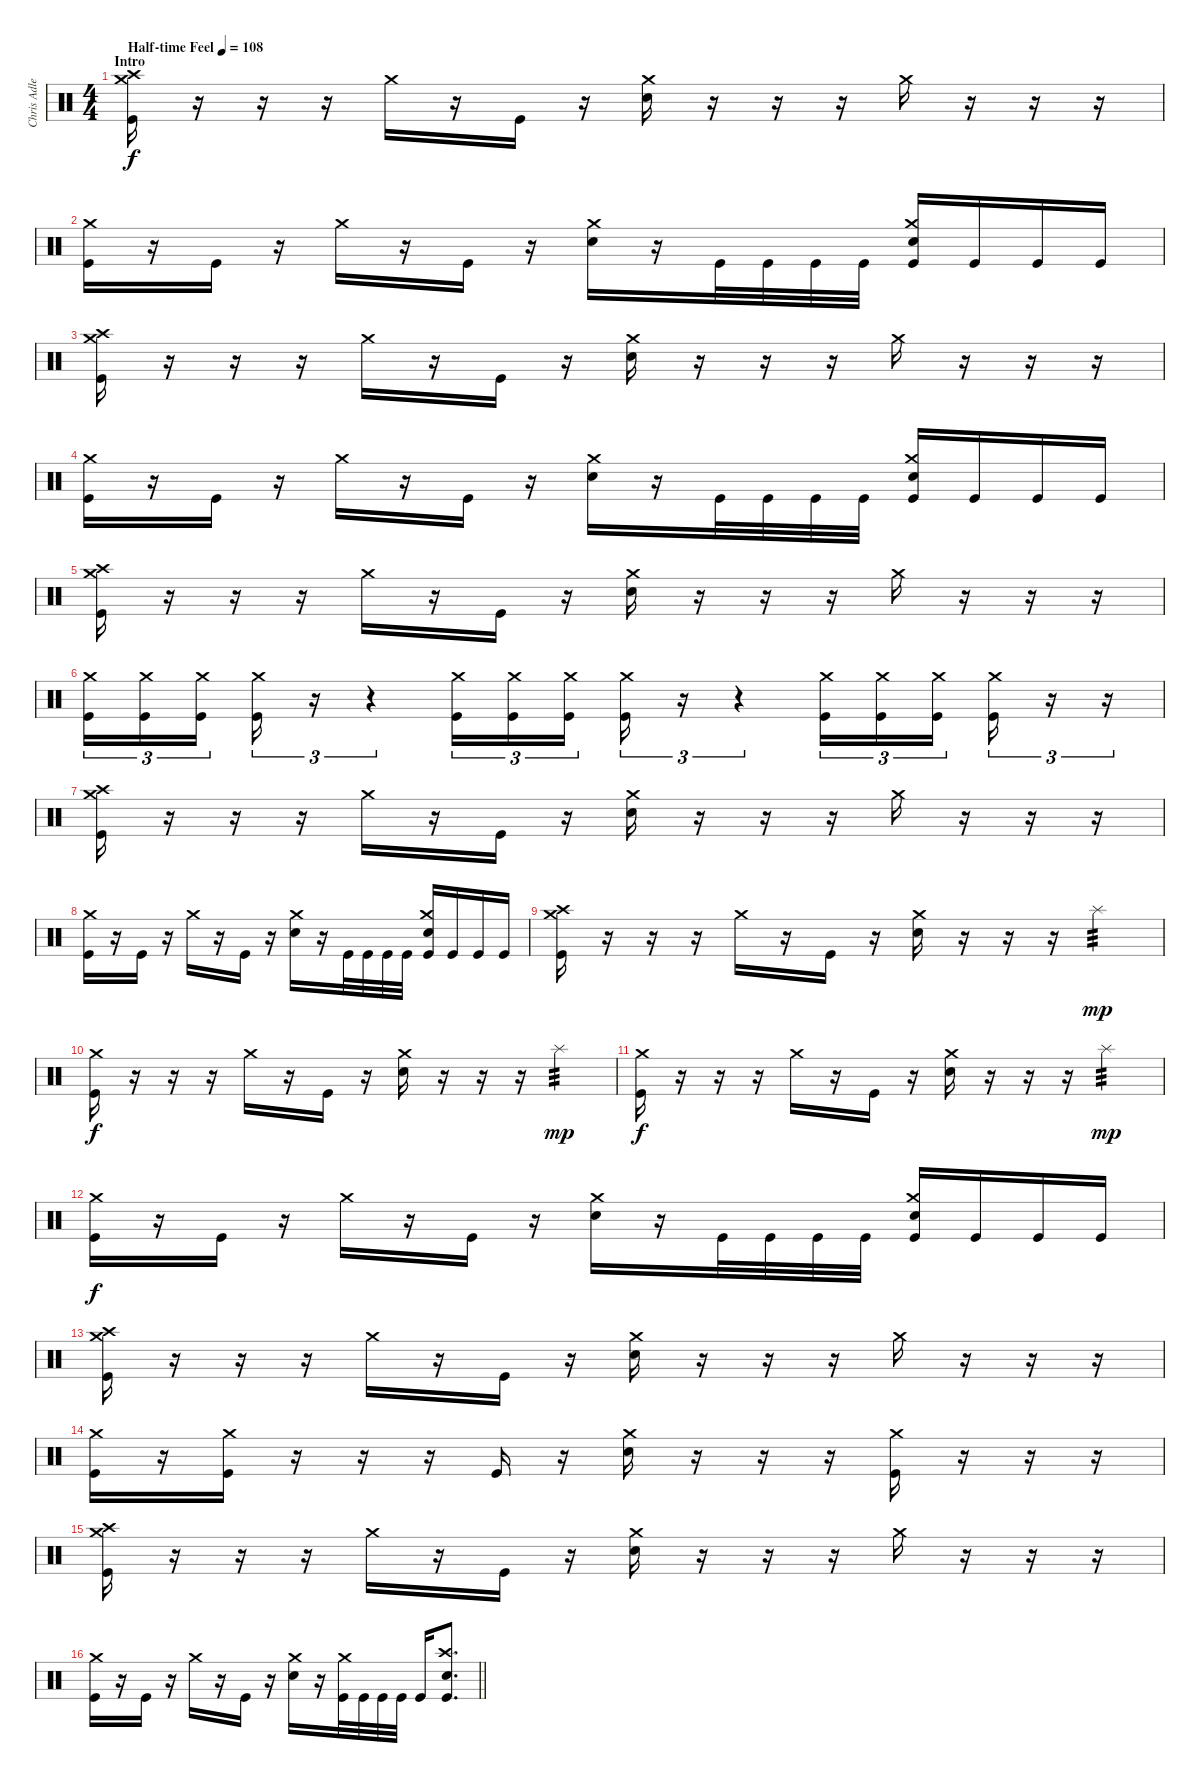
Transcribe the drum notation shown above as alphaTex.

\track ("Chris Adler (Drumkit)" "Chris Adle") {instrument percussion}
\staff {score}
\articulation defaults
\ts (4 4)
\section ("" "Intro")
\tempo (108 "Half-time Feel")
\clef neutral
\ks c
("Kick (hit)" "Crash high (hit)" "Crash medium (hit)").16{dy f} r.16 r.16 r.16 "Crash medium (hit)".16 r.16 "Kick (hit)".16 r.16 ("Snare (hit) 2" "Crash medium (hit)").16 r.16 r.16 r.16 "Crash medium (hit)".16 r.16 r.16 r.16 |
("Kick (hit)" "Crash medium (hit)").16 r.16 "Kick (hit)".16 r.16 "Crash medium (hit)".16 r.16 "Kick (hit)".16 r.16 ("Snare (hit) 2" "Crash medium (hit)").16 r.16 "Kick (hit)".32 "Kick (hit)".32 "Kick (hit)".32 "Kick (hit)".32 ("Kick (hit)" "Snare (hit) 2" "Crash medium (hit)").16 "Kick (hit)".16 "Kick (hit)".16 "Kick (hit)".16 |
("Kick (hit)" "Crash high (hit)" "Crash medium (hit)").16 r.16 r.16 r.16 "Crash medium (hit)".16 r.16 "Kick (hit)".16 r.16 ("Snare (hit) 2" "Crash medium (hit)").16 r.16 r.16 r.16 "Crash medium (hit)".16 r.16 r.16 r.16 |
("Kick (hit)" "Crash medium (hit)").16 r.16 "Kick (hit)".16 r.16 "Crash medium (hit)".16 r.16 "Kick (hit)".16 r.16 ("Snare (hit) 2" "Crash medium (hit)").16 r.16 "Kick (hit)".32 "Kick (hit)".32 "Kick (hit)".32 "Kick (hit)".32 ("Kick (hit)" "Snare (hit) 2" "Crash medium (hit)").16 "Kick (hit)".16 "Kick (hit)".16 "Kick (hit)".16 |
("Kick (hit)" "Crash high (hit)" "Crash medium (hit)").16 r.16 r.16 r.16 "Crash medium (hit)".16 r.16 "Kick (hit)".16 r.16 ("Snare (hit) 2" "Crash medium (hit)").16 r.16 r.16 r.16 "Crash medium (hit)".16 r.16 r.16 r.16 |
("Kick (hit)" "Crash medium (hit)").16{tu (3 2)} ("Kick (hit)" "Crash medium (hit)").16{tu (3 2)} ("Kick (hit)" "Crash medium (hit)").16{tu (3 2) beam splitsecondary} ("Kick (hit)" "Crash medium (hit)").16{tu (3 2)} r.16{tu (3 2)} r.4{tu (3 2)} ("Kick (hit)" "Crash medium (hit)").16{tu (3 2)} ("Kick (hit)" "Crash medium (hit)").16{tu (3 2)} ("Kick (hit)" "Crash medium (hit)").16{tu (3 2)} ("Kick (hit)" "Crash medium (hit)").16{tu (3 2)} r.16{tu (3 2)} r.4{tu (3 2)} ("Kick (hit)" "Crash medium (hit)").16{tu (3 2)} ("Kick (hit)" "Crash medium (hit)").16{tu (3 2)} ("Kick (hit)" "Crash medium (hit)").16{tu (3 2) beam splitsecondary} ("Kick (hit)" "Crash medium (hit)").16{tu (3 2)} r.16{tu (3 2)} r.16{tu (3 2)} |
("Kick (hit)" "Crash high (hit)" "Crash medium (hit)").16 r.16 r.16 r.16 "Crash medium (hit)".16 r.16 "Kick (hit)".16 r.16 ("Snare (hit) 2" "Crash medium (hit)").16 r.16 r.16 r.16 "Crash medium (hit)".16 r.16 r.16 r.16 |
("Kick (hit)" "Crash medium (hit)").16 r.16 "Kick (hit)".16 r.16 "Crash medium (hit)".16 r.16 "Kick (hit)".16 r.16 ("Snare (hit) 2" "Crash medium (hit)").16 r.16 "Kick (hit)".32 "Kick (hit)".32 "Kick (hit)".32 "Kick (hit)".32 ("Kick (hit)" "Snare (hit) 2" "Crash medium (hit)").16 "Kick (hit)".16 "Kick (hit)".16 "Kick (hit)".16 |
("Kick (hit)" "Crash high (hit)" "Crash medium (hit)").16 r.16 r.16 r.16 "Crash medium (hit)".16 r.16 "Kick (hit)".16 r.16 ("Snare (hit) 2" "Crash medium (hit)").16 r.16 r.16 r.16 "Splash (hit)".4{tp 3 dy mp} |
("Kick (hit)" "Crash medium (hit)").16{dy f} r.16 r.16 r.16 "Crash medium (hit)".16 r.16 "Kick (hit)".16 r.16 ("Snare (hit) 2" "Crash medium (hit)").16 r.16 r.16 r.16 "Splash (hit)".4{tp 3 dy mp} |
("Kick (hit)" "Crash medium (hit)").16{dy f} r.16 r.16 r.16 "Crash medium (hit)".16 r.16 "Kick (hit)".16 r.16 ("Snare (hit) 2" "Crash medium (hit)").16 r.16 r.16 r.16 "Splash (hit)".4{tp 3 dy mp} |
("Kick (hit)" "Crash medium (hit)").16{dy f} r.16 "Kick (hit)".16 r.16 "Crash medium (hit)".16 r.16 "Kick (hit)".16 r.16 ("Snare (hit) 2" "Crash medium (hit)").16 r.16 "Kick (hit)".32 "Kick (hit)".32 "Kick (hit)".32 "Kick (hit)".32 ("Kick (hit)" "Snare (hit) 2" "Crash medium (hit)").16 "Kick (hit)".16 "Kick (hit)".16 "Kick (hit)".16 |
("Kick (hit)" "Crash high (hit)" "Crash medium (hit)").16 r.16 r.16 r.16 "Crash medium (hit)".16 r.16 "Kick (hit)".16 r.16 ("Snare (hit) 2" "Crash medium (hit)").16 r.16 r.16 r.16 "Crash medium (hit)".16 r.16 r.16 r.16 |
("Kick (hit)" "Crash medium (hit)").16 r.16 ("Kick (hit)" "Crash medium (hit)").16 r.16 r.16 r.16 "Kick (hit)".16 r.16 ("Snare (hit) 2" "Crash medium (hit)").16 r.16 r.16 r.16 ("Kick (hit)" "Crash medium (hit)").16 r.16 r.16 r.16 |
("Kick (hit)" "Crash high (hit)" "Crash medium (hit)").16 r.16 r.16 r.16 "Crash medium (hit)".16 r.16 "Kick (hit)".16 r.16 ("Snare (hit) 2" "Crash medium (hit)").16 r.16 r.16 r.16 "Crash medium (hit)".16 r.16 r.16 r.16 |
\barLineRight lightlight
("Kick (hit)" "Crash medium (hit)").16 r.16 "Kick (hit)".16 r.16 "Crash medium (hit)".16 r.16 "Kick (hit)".16 r.16 ("Snare (hit) 2" "Crash medium (hit)").16 r.16 ("Kick (hit)" "Crash medium (hit)").32 "Kick (hit)".32 "Kick (hit)".32 "Kick (hit)".32 "Kick (hit)".16 ("Kick (hit)" "Snare (hit) 2" "Crash high (hit)").8{d}
